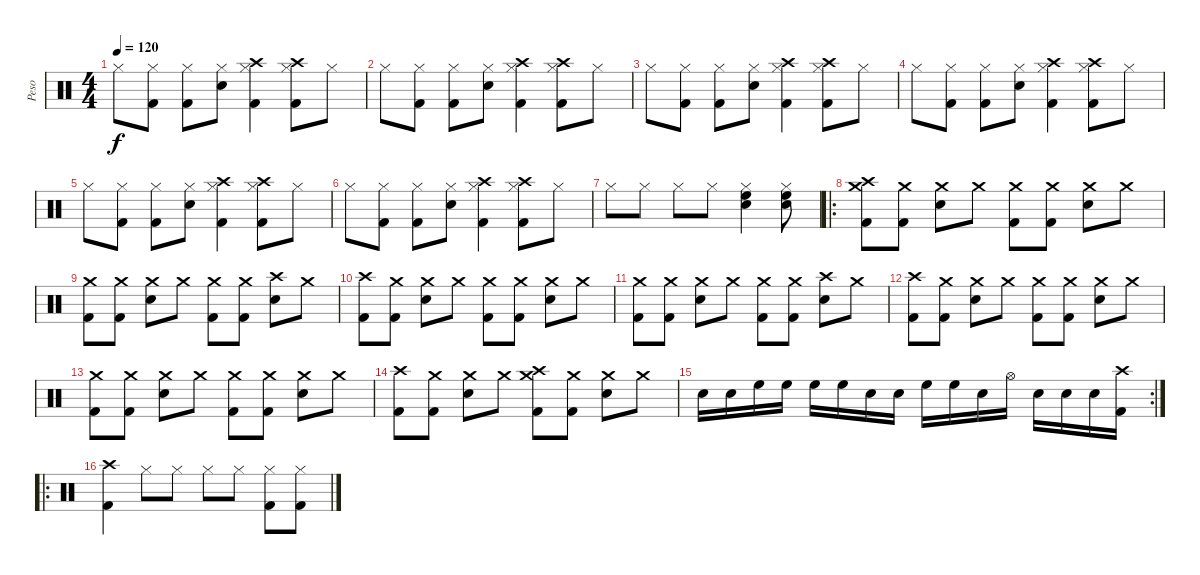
\track ("Peso" "Peso") {instrument percussion}
\staff {score}
\articulation defaults
\ts (4 4)
\tempo 120
\clef neutral
\ks c "Hi-Hat (closed)".8{dy f}
("Hi-Hat (closed)" "Kick (hit) 2").8 ("Hi-Hat (closed)" "Kick (hit) 2").8 ("Hi-Hat (closed)" "Snare (hit) 2").8 ("Crash high (hit)" "Hi-Hat (closed)" "Kick (hit) 2").4 ("Crash high (hit)" "Hi-Hat (closed)" "Kick (hit) 2").8 "Hi-Hat (closed)".8 |
"Hi-Hat (closed)".8 ("Hi-Hat (closed)" "Kick (hit) 2").8 ("Hi-Hat (closed)" "Kick (hit) 2").8 ("Hi-Hat (closed)" "Snare (hit) 2").8 ("Crash high (hit)" "Hi-Hat (closed)" "Kick (hit) 2").4 ("Crash high (hit)" "Hi-Hat (closed)" "Kick (hit) 2").8 "Hi-Hat (closed)".8 |
"Hi-Hat (closed)".8 ("Hi-Hat (closed)" "Kick (hit) 2").8 ("Hi-Hat (closed)" "Kick (hit) 2").8 ("Hi-Hat (closed)" "Snare (hit) 2").8 ("Crash high (hit)" "Hi-Hat (closed)" "Kick (hit) 2").4 ("Crash high (hit)" "Hi-Hat (closed)" "Kick (hit) 2").8 "Hi-Hat (closed)".8 |
"Hi-Hat (closed)".8 ("Hi-Hat (closed)" "Kick (hit) 2").8 ("Hi-Hat (closed)" "Kick (hit) 2").8 ("Hi-Hat (closed)" "Snare (hit) 2").8 ("Crash high (hit)" "Hi-Hat (closed)" "Kick (hit) 2").4 ("Crash high (hit)" "Hi-Hat (closed)" "Kick (hit) 2").8 "Hi-Hat (closed)".8 |
"Hi-Hat (closed)".8 ("Hi-Hat (closed)" "Kick (hit) 2").8 ("Hi-Hat (closed)" "Kick (hit) 2").8 ("Hi-Hat (closed)" "Snare (hit) 2").8 ("Crash high (hit)" "Hi-Hat (closed)" "Kick (hit) 2").4 ("Crash high (hit)" "Hi-Hat (closed)" "Kick (hit) 2").8 "Hi-Hat (closed)".8 |
"Hi-Hat (closed)".8 ("Hi-Hat (closed)" "Kick (hit) 2").8 ("Hi-Hat (closed)" "Kick (hit) 2").8 ("Hi-Hat (closed)" "Snare (hit) 2").8 ("Crash high (hit)" "Hi-Hat (closed)" "Kick (hit) 2").4 ("Crash high (hit)" "Hi-Hat (closed)" "Kick (hit) 2").8 "Hi-Hat (closed)".8 |
"Hi-Hat (closed)".8 "Hi-Hat (closed)".8 "Hi-Hat (closed)".8 "Hi-Hat (closed)".8 ("Hi-Hat (closed)" "Snare (hit) 2" "High Floor Tom (hit)").4 ("Hi-Hat (closed)" "Snare (hit) 2" "High Floor Tom (hit)").8 |
\ro
("Crash high (hit)" "Crash medium (hit)" "Kick (hit) 2").8 ("Crash medium (hit)" "Kick (hit) 2").8 ("Crash medium (hit)" "Snare (hit) 2").8 "Crash medium (hit)".8 ("Crash medium (hit)" "Kick (hit) 2").8 ("Crash medium (hit)" "Kick (hit) 2").8 ("Crash medium (hit)" "Snare (hit) 2").8 "Crash medium (hit)".8 |
("Crash medium (hit)" "Kick (hit) 2").8 ("Crash medium (hit)" "Kick (hit) 2").8 ("Crash medium (hit)" "Snare (hit) 2").8 "Crash medium (hit)".8 ("Crash medium (hit)" "Kick (hit) 2").8 ("Crash medium (hit)" "Kick (hit) 2").8 ("Crash high (hit)" "Snare (hit) 2").8 "Crash medium (hit)".8 |
("Crash high (hit)" "Kick (hit) 2").8 ("Crash medium (hit)" "Kick (hit) 2").8 ("Crash medium (hit)" "Snare (hit) 2").8 "Crash medium (hit)".8 ("Crash medium (hit)" "Kick (hit) 2").8 ("Crash medium (hit)" "Kick (hit) 2").8 ("Crash medium (hit)" "Snare (hit) 2").8 "Crash medium (hit)".8 |
("Crash medium (hit)" "Kick (hit) 2").8 ("Crash medium (hit)" "Kick (hit) 2").8 ("Crash medium (hit)" "Snare (hit) 2").8 "Crash medium (hit)".8 ("Crash medium (hit)" "Kick (hit) 2").8 ("Crash medium (hit)" "Kick (hit) 2").8 ("Crash high (hit)" "Snare (hit) 2").8 "Crash medium (hit)".8 |
("Crash high (hit)" "Kick (hit) 2").8 ("Crash medium (hit)" "Kick (hit) 2").8 ("Crash medium (hit)" "Snare (hit) 2").8 "Crash medium (hit)".8 ("Crash medium (hit)" "Kick (hit) 2").8 ("Crash medium (hit)" "Kick (hit) 2").8 ("Crash medium (hit)" "Snare (hit) 2").8 "Crash medium (hit)".8 |
("Crash medium (hit)" "Kick (hit) 2").8 ("Crash medium (hit)" "Kick (hit) 2").8 ("Crash medium (hit)" "Snare (hit) 2").8 "Crash medium (hit)".8 ("Crash medium (hit)" "Kick (hit) 2").8 ("Crash medium (hit)" "Kick (hit) 2").8 ("Crash medium (hit)" "Snare (hit) 2").8 "Crash medium (hit)".8 |
("Crash high (hit)" "Kick (hit) 2").8 ("Crash medium (hit)" "Kick (hit) 2").8 ("Crash medium (hit)" "Snare (hit) 2").8 "Crash medium (hit)".8 ("Crash high (hit)" "Crash medium (hit)" "Kick (hit) 2").8 ("Crash medium (hit)" "Kick (hit) 2").8 ("Crash medium (hit)" "Snare (hit) 2").8 "Crash medium (hit)".8 |
\rc 2 "Snare (hit) 2".16 "Snare (hit) 2".16 "High Floor Tom (hit)".16 "High Floor Tom (hit)".16 "High Floor Tom (hit)".16 "High Floor Tom (hit)".16 "Snare (hit) 2".16 "Snare (hit) 2".16 "High Floor Tom (hit)".16 "High Floor Tom (hit)".16 "Snare (hit) 2".16 "Hi-Hat (open)".16 "Snare (hit) 2".16 "Snare (hit) 2".16 "Snare (hit) 2".16
("Crash high (hit)" "Kick (hit) 2").16 |
\ro
("Crash high (hit)" "Kick (hit) 2").4 "Hi-Hat (closed)".8 "Hi-Hat (closed)".8 "Hi-Hat (closed)".8 "Hi-Hat (closed)".8 ("Hi-Hat (closed)" "Kick (hit) 2").8 ("Hi-Hat (closed)" "Kick (hit) 2").8
